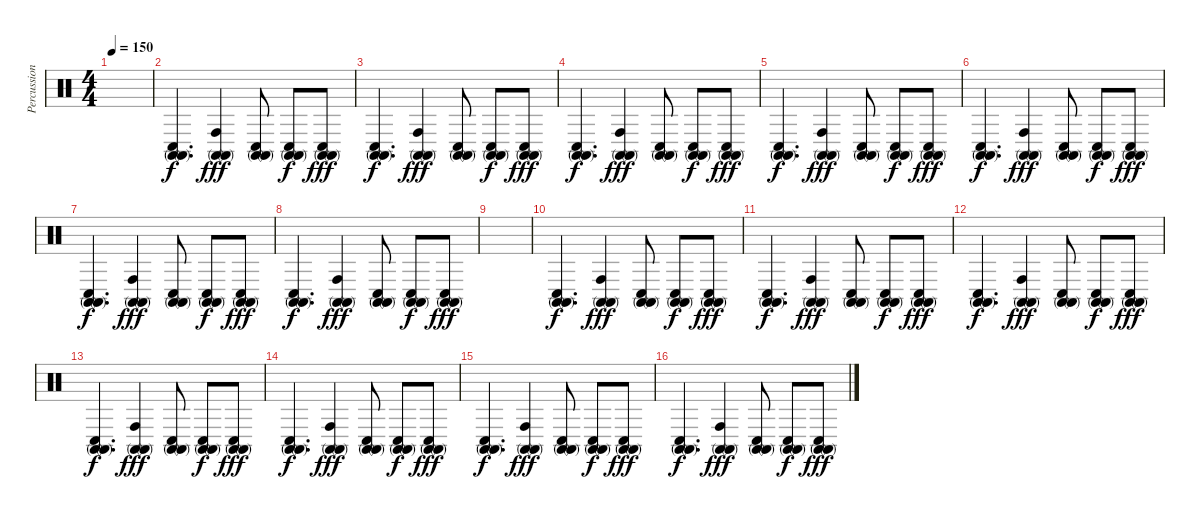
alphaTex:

\track ("Percussion2" "Percussion") {instrument percussion}
\staff {score}
\articulation defaults
\ts (4 4)
\tempo 150
\clef neutral
\ks aminor
|
("Conga high (mute)" "Conga high (mute)" "Conga low (hit)").4{d dy f} ("Conga high (mute)" "Conga high (mute)" "Conga high (hit)").4{dy fff} ("Conga high (mute)" "Conga high (mute)" "Conga low (hit)").8 ("Conga high (mute)" "Conga high (mute)" "Conga low (hit)").8{dy f} ("Conga high (mute)" "Conga high (mute)" "Conga low (hit)").8{dy fff} |
("Conga high (mute)" "Conga high (mute)" "Conga low (hit)").4{d dy f} ("Conga high (mute)" "Conga high (mute)" "Conga high (hit)").4{dy fff} ("Conga high (mute)" "Conga high (mute)" "Conga low (hit)").8 ("Conga high (mute)" "Conga high (mute)" "Conga low (hit)").8{dy f} ("Conga high (mute)" "Conga high (mute)" "Conga low (hit)").8{dy fff} |
("Conga high (mute)" "Conga high (mute)" "Conga low (hit)").4{d dy f} ("Conga high (mute)" "Conga high (mute)" "Conga high (hit)").4{dy fff} ("Conga high (mute)" "Conga high (mute)" "Conga low (hit)").8 ("Conga high (mute)" "Conga high (mute)" "Conga low (hit)").8{dy f} ("Conga high (mute)" "Conga high (mute)" "Conga low (hit)").8{dy fff} |
("Conga high (mute)" "Conga high (mute)" "Conga low (hit)").4{d dy f} ("Conga high (mute)" "Conga high (mute)" "Conga high (hit)").4{dy fff} ("Conga high (mute)" "Conga high (mute)" "Conga low (hit)").8 ("Conga high (mute)" "Conga high (mute)" "Conga low (hit)").8{dy f} ("Conga high (mute)" "Conga high (mute)" "Conga low (hit)").8{dy fff} |
("Conga high (mute)" "Conga high (mute)" "Conga low (hit)").4{d dy f} ("Conga high (mute)" "Conga high (mute)" "Conga high (hit)").4{dy fff} ("Conga high (mute)" "Conga high (mute)" "Conga low (hit)").8 ("Conga high (mute)" "Conga high (mute)" "Conga low (hit)").8{dy f} ("Conga high (mute)" "Conga high (mute)" "Conga low (hit)").8{dy fff} |
("Conga high (mute)" "Conga high (mute)" "Conga low (hit)").4{d dy f} ("Conga high (mute)" "Conga high (mute)" "Conga high (hit)").4{dy fff} ("Conga high (mute)" "Conga high (mute)" "Conga low (hit)").8 ("Conga high (mute)" "Conga high (mute)" "Conga low (hit)").8{dy f} ("Conga high (mute)" "Conga high (mute)" "Conga low (hit)").8{dy fff} |
("Conga high (mute)" "Conga high (mute)" "Conga low (hit)").4{d dy f} ("Conga high (mute)" "Conga high (mute)" "Conga high (hit)").4{dy fff} ("Conga high (mute)" "Conga high (mute)" "Conga low (hit)").8 ("Conga high (mute)" "Conga high (mute)" "Conga low (hit)").8{dy f} ("Conga high (mute)" "Conga high (mute)" "Conga low (hit)").8{dy fff} |
|
("Conga high (mute)" "Conga high (mute)" "Conga low (hit)").4{d dy f} ("Conga high (mute)" "Conga high (mute)" "Conga high (hit)").4{dy fff} ("Conga high (mute)" "Conga high (mute)" "Conga low (hit)").8 ("Conga high (mute)" "Conga high (mute)" "Conga low (hit)").8{dy f} ("Conga high (mute)" "Conga high (mute)" "Conga low (hit)").8{dy fff} |
("Conga high (mute)" "Conga high (mute)" "Conga low (hit)").4{d dy f} ("Conga high (mute)" "Conga high (mute)" "Conga high (hit)").4{dy fff} ("Conga high (mute)" "Conga high (mute)" "Conga low (hit)").8 ("Conga high (mute)" "Conga high (mute)" "Conga low (hit)").8{dy f} ("Conga high (mute)" "Conga high (mute)" "Conga low (hit)").8{dy fff} |
("Conga high (mute)" "Conga high (mute)" "Conga low (hit)").4{d dy f} ("Conga high (mute)" "Conga high (mute)" "Conga high (hit)").4{dy fff} ("Conga high (mute)" "Conga high (mute)" "Conga low (hit)").8 ("Conga high (mute)" "Conga high (mute)" "Conga low (hit)").8{dy f} ("Conga high (mute)" "Conga high (mute)" "Conga low (hit)").8{dy fff} |
("Conga high (mute)" "Conga high (mute)" "Conga low (hit)").4{d dy f} ("Conga high (mute)" "Conga high (mute)" "Conga high (hit)").4{dy fff} ("Conga high (mute)" "Conga high (mute)" "Conga low (hit)").8 ("Conga high (mute)" "Conga high (mute)" "Conga low (hit)").8{dy f} ("Conga high (mute)" "Conga high (mute)" "Conga low (hit)").8{dy fff} |
("Conga high (mute)" "Conga high (mute)" "Conga low (hit)").4{d dy f} ("Conga high (mute)" "Conga high (mute)" "Conga high (hit)").4{dy fff} ("Conga high (mute)" "Conga high (mute)" "Conga low (hit)").8 ("Conga high (mute)" "Conga high (mute)" "Conga low (hit)").8{dy f} ("Conga high (mute)" "Conga high (mute)" "Conga low (hit)").8{dy fff} |
("Conga high (mute)" "Conga high (mute)" "Conga low (hit)").4{d dy f} ("Conga high (mute)" "Conga high (mute)" "Conga high (hit)").4{dy fff} ("Conga high (mute)" "Conga high (mute)" "Conga low (hit)").8 ("Conga high (mute)" "Conga high (mute)" "Conga low (hit)").8{dy f} ("Conga high (mute)" "Conga high (mute)" "Conga low (hit)").8{dy fff} |
("Conga high (mute)" "Conga high (mute)" "Conga low (hit)").4{d dy f} ("Conga high (mute)" "Conga high (mute)" "Conga high (hit)").4{dy fff} ("Conga high (mute)" "Conga high (mute)" "Conga low (hit)").8 ("Conga high (mute)" "Conga high (mute)" "Conga low (hit)").8{dy f} ("Conga high (mute)" "Conga high (mute)" "Conga low (hit)").8{dy fff}
